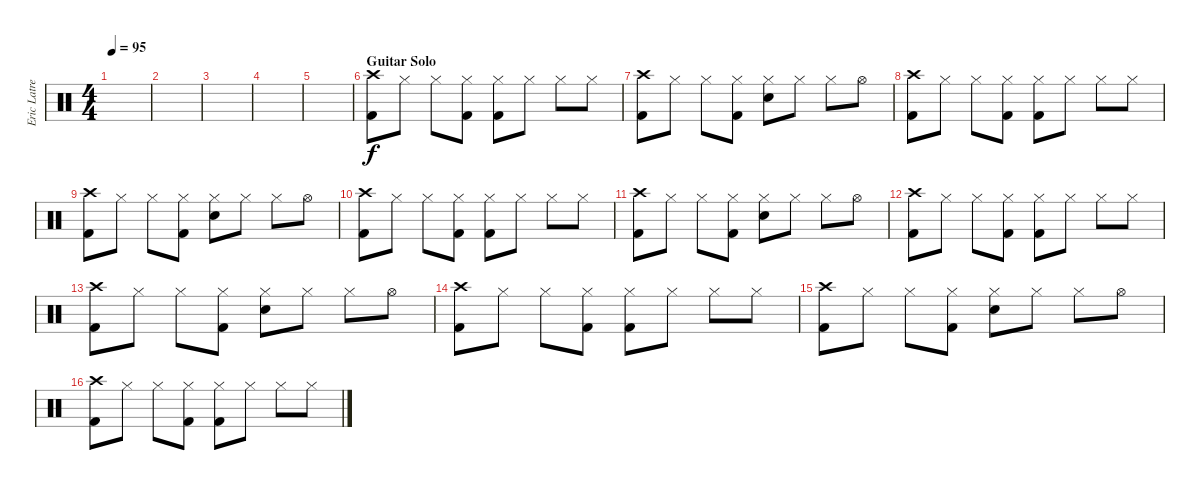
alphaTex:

\track ("Eric Latreille" "Eric Latre") {instrument percussion}
\staff {score}
\articulation defaults
\ts (4 4)
\tempo 95
\clef neutral
\ks c
|
|
|
|
|
\section ("" "Guitar Solo")
("Crash high (hit)" "Kick (hit) 2").8 "Hi-Hat (closed)".8 "Hi-Hat (closed)".8 ("Hi-Hat (closed)" "Kick (hit) 2").8 ("Hi-Hat (closed)" "Kick (hit) 2").8 "Hi-Hat (closed)".8 "Hi-Hat (closed)".8 "Hi-Hat (closed)".8 |
("Crash high (hit)" "Kick (hit) 2").8 "Hi-Hat (closed)".8 "Hi-Hat (closed)".8 ("Hi-Hat (closed)" "Kick (hit) 2").8 ("Hi-Hat (closed)" "Snare (hit) 2").8 "Hi-Hat (closed)".8 "Hi-Hat (closed)".8 "Hi-Hat (open)".8 |
("Crash high (hit)" "Kick (hit) 2").8 "Hi-Hat (closed)".8 "Hi-Hat (closed)".8 ("Hi-Hat (closed)" "Kick (hit) 2").8 ("Hi-Hat (closed)" "Kick (hit) 2").8 "Hi-Hat (closed)".8 "Hi-Hat (closed)".8 "Hi-Hat (closed)".8 |
("Crash high (hit)" "Kick (hit) 2").8 "Hi-Hat (closed)".8 "Hi-Hat (closed)".8 ("Hi-Hat (closed)" "Kick (hit) 2").8 ("Hi-Hat (closed)" "Snare (hit) 2").8 "Hi-Hat (closed)".8 "Hi-Hat (closed)".8 "Hi-Hat (open)".8 |
("Crash high (hit)" "Kick (hit) 2").8 "Hi-Hat (closed)".8 "Hi-Hat (closed)".8 ("Hi-Hat (closed)" "Kick (hit) 2").8 ("Hi-Hat (closed)" "Kick (hit) 2").8 "Hi-Hat (closed)".8 "Hi-Hat (closed)".8 "Hi-Hat (closed)".8 |
("Crash high (hit)" "Kick (hit) 2").8 "Hi-Hat (closed)".8 "Hi-Hat (closed)".8 ("Hi-Hat (closed)" "Kick (hit) 2").8 ("Hi-Hat (closed)" "Snare (hit) 2").8 "Hi-Hat (closed)".8 "Hi-Hat (closed)".8 "Hi-Hat (open)".8 |
("Crash high (hit)" "Kick (hit) 2").8 "Hi-Hat (closed)".8 "Hi-Hat (closed)".8 ("Hi-Hat (closed)" "Kick (hit) 2").8 ("Hi-Hat (closed)" "Kick (hit) 2").8 "Hi-Hat (closed)".8 "Hi-Hat (closed)".8 "Hi-Hat (closed)".8 |
("Crash high (hit)" "Kick (hit) 2").8 "Hi-Hat (closed)".8 "Hi-Hat (closed)".8 ("Hi-Hat (closed)" "Kick (hit) 2").8 ("Hi-Hat (closed)" "Snare (hit) 2").8 "Hi-Hat (closed)".8 "Hi-Hat (closed)".8 "Hi-Hat (open)".8 |
("Crash high (hit)" "Kick (hit) 2").8 "Hi-Hat (closed)".8 "Hi-Hat (closed)".8 ("Hi-Hat (closed)" "Kick (hit) 2").8 ("Hi-Hat (closed)" "Kick (hit) 2").8 "Hi-Hat (closed)".8 "Hi-Hat (closed)".8 "Hi-Hat (closed)".8 |
("Crash high (hit)" "Kick (hit) 2").8 "Hi-Hat (closed)".8 "Hi-Hat (closed)".8 ("Hi-Hat (closed)" "Kick (hit) 2").8 ("Hi-Hat (closed)" "Snare (hit) 2").8 "Hi-Hat (closed)".8 "Hi-Hat (closed)".8 "Hi-Hat (open)".8 |
("Crash high (hit)" "Kick (hit) 2").8 "Hi-Hat (closed)".8 "Hi-Hat (closed)".8 ("Hi-Hat (closed)" "Kick (hit) 2").8 ("Hi-Hat (closed)" "Kick (hit) 2").8 "Hi-Hat (closed)".8 "Hi-Hat (closed)".8 "Hi-Hat (closed)".8
